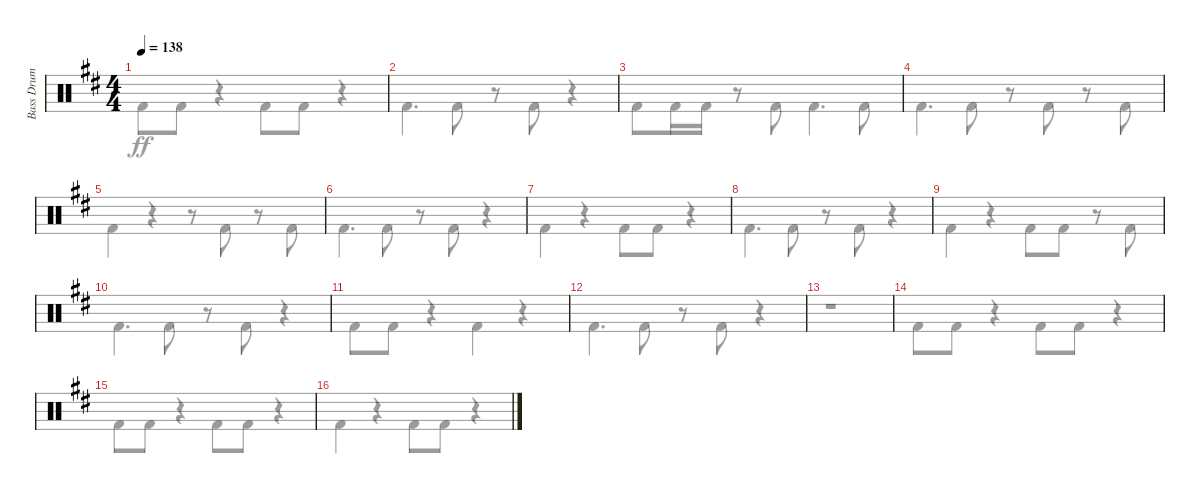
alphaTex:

\track ("Bass Drum" "Bass Drum") {instrument percussion}
\staff {score}
\articulation defaults
\voice
\ts (4 4)
\tempo 138
\clef neutral
\ks d
|
|
|
|
|
|
|
|
|
|
|
|
|
|
|
\voice
\clef neutral
\ks d "Kick (hit) 2".8{dy ff} "Kick (hit) 2".8
r.4 "Kick (hit) 2".8 "Kick (hit) 2".8 r.4 |
"Kick (hit) 2".4{d} "Kick (hit) 2".8 r.8 "Kick (hit) 2".8 r.4 |
"Kick (hit) 2".8 "Kick (hit) 2".16 "Kick (hit) 2".16 r.8 "Kick (hit) 2".8 "Kick (hit) 2".4{d} "Kick (hit) 2".8 |
"Kick (hit) 2".4{d} "Kick (hit) 2".8 r.8 "Kick (hit) 2".8 r.8 "Kick (hit) 2".8 |
"Kick (hit) 2".4 r.4 r.8 "Kick (hit) 2".8 r.8 "Kick (hit) 2".8 |
"Kick (hit) 2".4{d} "Kick (hit) 2".8 r.8 "Kick (hit) 2".8 r.4 |
"Kick (hit) 2".4 r.4 "Kick (hit) 2".8 "Kick (hit) 2".8 r.4 |
"Kick (hit) 2".4{d} "Kick (hit) 2".8 r.8 "Kick (hit) 2".8 r.4 |
"Kick (hit) 2".4 r.4 "Kick (hit) 2".8 "Kick (hit) 2".8 r.8 "Kick (hit) 2".8 |
"Kick (hit) 2".4{d} "Kick (hit) 2".8 r.8 "Kick (hit) 2".8 r.4 |
"Kick (hit) 2".8 "Kick (hit) 2".8 r.4 "Kick (hit) 2".4 r.4 |
"Kick (hit) 2".4{d} "Kick (hit) 2".8 r.8 "Kick (hit) 2".8 r.4 |
r.1 |
"Kick (hit) 2".8 "Kick (hit) 2".8 r.4 "Kick (hit) 2".8 "Kick (hit) 2".8 r.4 |
"Kick (hit) 2".8 "Kick (hit) 2".8 r.4 "Kick (hit) 2".8 "Kick (hit) 2".8 r.4 |
"Kick (hit) 2".4 r.4 "Kick (hit) 2".8 "Kick (hit) 2".8 r.4
